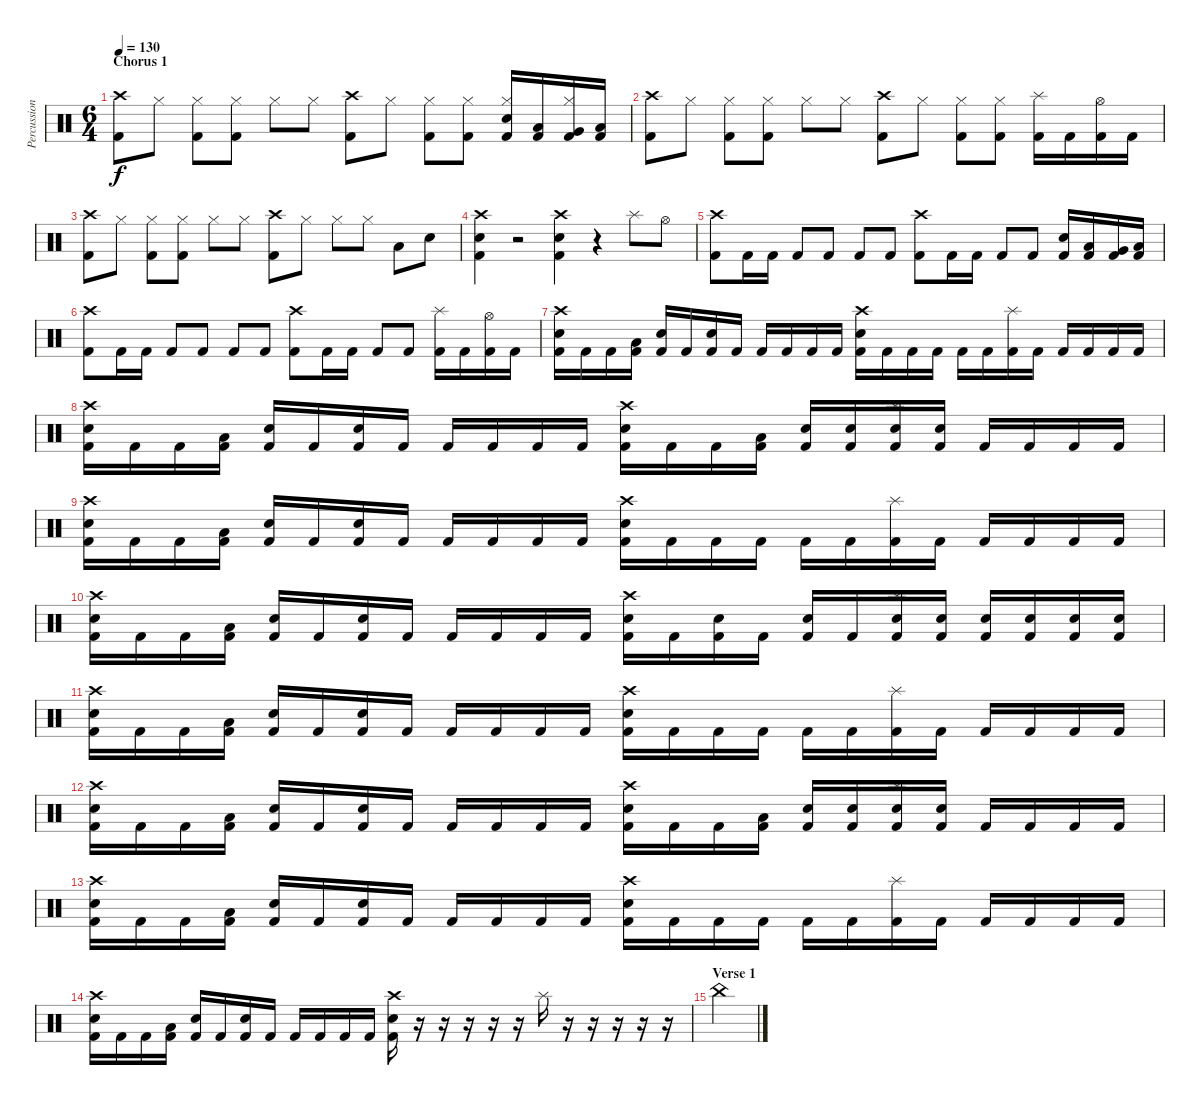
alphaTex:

\track ("Percussion" "Percussion") {instrument percussion}
\staff {score}
\articulation defaults
\ts (6 4)
\section ("" "Chorus 1")
\tempo 130
\clef neutral
\ks c
("Crash high (hit)" "Kick (hit) 2").8{dy f} "Hi-Hat (closed)".8 ("Hi-Hat (closed)" "Kick (hit) 2").8 ("Hi-Hat (closed)" "Kick (hit) 2").8 "Hi-Hat (closed)".8 "Hi-Hat (closed)".8 ("Crash high (hit)" "Kick (hit) 2").8 "Hi-Hat (closed)".8 ("Hi-Hat (closed)" "Kick (hit) 2").8 ("Hi-Hat (closed)" "Kick (hit) 2").8 ("Hi-Hat (closed)" "Electric Snare (hit)" "Kick (hit) 2").16 ("Low Tom (hit)" "Kick (hit) 2").16 ("Hi-Hat (closed)" "Very Low Tom (hit)" "Kick (hit) 2").16 ("Low Floor Tom (hit)" "Kick (hit) 2").16 |
("Crash high (hit)" "Kick (hit) 2").8 "Hi-Hat (closed)".8 ("Hi-Hat (closed)" "Kick (hit) 2").8 ("Hi-Hat (closed)" "Kick (hit) 2").8 "Hi-Hat (closed)".8 "Hi-Hat (closed)".8 ("Crash high (hit)" "Kick (hit) 2").8 "Hi-Hat (closed)".8 ("Hi-Hat (closed)" "Kick (hit) 2").8 ("Hi-Hat (closed)" "Kick (hit) 2").8 ("Splash (hit)" "Kick (hit) 2").16 "Kick (hit) 2".16 ("Hi-Hat (open)" "Kick (hit) 2").16 "Kick (hit) 2".16 |
("Crash high (hit)" "Kick (hit) 2").8 "Hi-Hat (closed)".8 ("Hi-Hat (closed)" "Kick (hit) 2").8 ("Hi-Hat (closed)" "Kick (hit) 2").8 "Hi-Hat (closed)".8 "Hi-Hat (closed)".8 ("Crash high (hit)" "Kick (hit) 2").8 "Hi-Hat (closed)".8 "Hi-Hat (closed)".8 "Hi-Hat (closed)".8 "Low Tom (hit)".8 "Snare (hit) 2".8 |
("Crash high (hit)" "Snare (hit) 2" "Kick (hit) 2").4 r.2 ("Crash high (hit)" "Snare (hit) 2" "Kick (hit) 2").4 r.4 "Splash (hit)".8 "Hi-Hat (open)".8 |
("Crash high (hit)" "Kick (hit) 2").8 "Kick (hit) 2".16 "Kick (hit) 2".16 "Kick (hit) 2".8 "Kick (hit) 2".8 "Kick (hit) 2".8 "Kick (hit) 2".8 ("Crash high (hit)" "Kick (hit) 2").8 "Kick (hit) 2".16 "Kick (hit) 2".16 "Kick (hit) 2".8 "Kick (hit) 2".8 ("Electric Snare (hit)" "Kick (hit) 2").16 ("Low Tom (hit)" "Kick (hit) 2").16 ("Very Low Tom (hit)" "Kick (hit) 2").16 ("Low Floor Tom (hit)" "Kick (hit) 2").16 |
("Crash high (hit)" "Kick (hit) 2").8 "Kick (hit) 2".16 "Kick (hit) 2".16 "Kick (hit) 2".8 "Kick (hit) 2".8 "Kick (hit) 2".8 "Kick (hit) 2".8 ("Crash high (hit)" "Kick (hit) 2").8 "Kick (hit) 2".16 "Kick (hit) 2".16 "Kick (hit) 2".8 "Kick (hit) 2".8 ("Splash (hit)" "Kick (hit) 2").16 "Kick (hit) 2".16 ("Hi-Hat (open)" "Kick (hit) 2").16 "Kick (hit) 2".16 |
("Crash high (hit)" "Snare (hit) 2" "Kick (hit) 2").16 "Kick (hit) 2".16 "Kick (hit) 2".16 ("Low Tom (hit)" "Kick (hit) 2").16 ("Snare (hit) 2" "Kick (hit) 2").16 "Kick (hit) 2".16 ("Snare (hit) 2" "Kick (hit) 2").16 "Kick (hit) 2".16 "Kick (hit) 2".16 "Kick (hit) 2".16 "Kick (hit) 2".16 "Kick (hit) 2".16 ("Crash high (hit)" "Snare (hit) 2" "Kick (hit) 2").16 "Kick (hit) 2".16 "Kick (hit) 2".16 "Kick (hit) 2".16 "Kick (hit) 2".16 "Kick (hit) 2".16 ("Splash (hit)" "Kick (hit) 2").16 "Kick (hit) 2".16 "Kick (hit) 2".16 "Kick (hit) 2".16 "Kick (hit) 2".16 "Kick (hit) 2".16 |
("Crash high (hit)" "Snare (hit) 2" "Kick (hit) 2").16 "Kick (hit) 2".16 "Kick (hit) 2".16 ("Low Tom (hit)" "Kick (hit) 2").16 ("Snare (hit) 2" "Kick (hit) 2").16 "Kick (hit) 2".16 ("Snare (hit) 2" "Kick (hit) 2").16 "Kick (hit) 2".16 "Kick (hit) 2".16 "Kick (hit) 2".16 "Kick (hit) 2".16 "Kick (hit) 2".16 ("Crash high (hit)" "Snare (hit) 2" "Kick (hit) 2").16 "Kick (hit) 2".16 "Kick (hit) 2".16 ("Low Tom (hit)" "Kick (hit) 2").16 ("Snare (hit) 2" "Kick (hit) 2").16 ("Electric Snare (hit)" "Kick (hit) 2").16 ("Splash (hit)" "Snare (hit) 2" "Kick (hit) 2").16 ("Electric Snare (hit)" "Kick (hit) 2").16 "Kick (hit) 2".16 "Kick (hit) 2".16 "Kick (hit) 2".16 "Kick (hit) 2".16 |
("Crash high (hit)" "Snare (hit) 2" "Kick (hit) 2").16 "Kick (hit) 2".16 "Kick (hit) 2".16 ("Low Tom (hit)" "Kick (hit) 2").16 ("Snare (hit) 2" "Kick (hit) 2").16 "Kick (hit) 2".16 ("Snare (hit) 2" "Kick (hit) 2").16 "Kick (hit) 2".16 "Kick (hit) 2".16 "Kick (hit) 2".16 "Kick (hit) 2".16 "Kick (hit) 2".16 ("Crash high (hit)" "Snare (hit) 2" "Kick (hit) 2").16 "Kick (hit) 2".16 "Kick (hit) 2".16 "Kick (hit) 2".16 "Kick (hit) 2".16 "Kick (hit) 2".16 ("Splash (hit)" "Kick (hit) 2").16 "Kick (hit) 2".16 "Kick (hit) 2".16 "Kick (hit) 2".16 "Kick (hit) 2".16 "Kick (hit) 2".16 |
("Crash high (hit)" "Snare (hit) 2" "Kick (hit) 2").16 "Kick (hit) 2".16 "Kick (hit) 2".16 ("Low Tom (hit)" "Kick (hit) 2").16 ("Snare (hit) 2" "Kick (hit) 2").16 "Kick (hit) 2".16 ("Snare (hit) 2" "Kick (hit) 2").16 "Kick (hit) 2".16 "Kick (hit) 2".16 "Kick (hit) 2".16 "Kick (hit) 2".16 "Kick (hit) 2".16 ("Crash high (hit)" "Snare (hit) 2" "Kick (hit) 2").16 "Kick (hit) 2".16 ("Snare (hit) 2" "Kick (hit) 2").16 "Kick (hit) 2".16 ("Snare (hit) 2" "Kick (hit) 2").16 "Kick (hit) 2".16 ("Splash (hit)" "Snare (hit) 2" "Kick (hit) 2").16 ("Electric Snare (hit)" "Kick (hit) 2").16 ("Snare (hit) 2" "Kick (hit) 2").16 ("Electric Snare (hit)" "Kick (hit) 2").16 ("Snare (hit) 2" "Kick (hit) 2").16 ("Electric Snare (hit)" "Kick (hit) 2").16 |
("Crash high (hit)" "Snare (hit) 2" "Kick (hit) 2").16 "Kick (hit) 2".16 "Kick (hit) 2".16 ("Low Tom (hit)" "Kick (hit) 2").16 ("Snare (hit) 2" "Kick (hit) 2").16 "Kick (hit) 2".16 ("Snare (hit) 2" "Kick (hit) 2").16 "Kick (hit) 2".16 "Kick (hit) 2".16 "Kick (hit) 2".16 "Kick (hit) 2".16 "Kick (hit) 2".16 ("Crash high (hit)" "Snare (hit) 2" "Kick (hit) 2").16 "Kick (hit) 2".16 "Kick (hit) 2".16 "Kick (hit) 2".16 "Kick (hit) 2".16 "Kick (hit) 2".16 ("Splash (hit)" "Kick (hit) 2").16 "Kick (hit) 2".16 "Kick (hit) 2".16 "Kick (hit) 2".16 "Kick (hit) 2".16 "Kick (hit) 2".16 |
("Crash high (hit)" "Snare (hit) 2" "Kick (hit) 2").16 "Kick (hit) 2".16 "Kick (hit) 2".16 ("Low Tom (hit)" "Kick (hit) 2").16 ("Snare (hit) 2" "Kick (hit) 2").16 "Kick (hit) 2".16 ("Snare (hit) 2" "Kick (hit) 2").16 "Kick (hit) 2".16 "Kick (hit) 2".16 "Kick (hit) 2".16 "Kick (hit) 2".16 "Kick (hit) 2".16 ("Crash high (hit)" "Snare (hit) 2" "Kick (hit) 2").16 "Kick (hit) 2".16 "Kick (hit) 2".16 ("Low Tom (hit)" "Kick (hit) 2").16 ("Snare (hit) 2" "Kick (hit) 2").16 ("Electric Snare (hit)" "Kick (hit) 2").16 ("Splash (hit)" "Snare (hit) 2" "Kick (hit) 2").16 ("Electric Snare (hit)" "Kick (hit) 2").16 "Kick (hit) 2".16 "Kick (hit) 2".16 "Kick (hit) 2".16 "Kick (hit) 2".16 |
("Crash high (hit)" "Snare (hit) 2" "Kick (hit) 2").16 "Kick (hit) 2".16 "Kick (hit) 2".16 ("Low Tom (hit)" "Kick (hit) 2").16 ("Snare (hit) 2" "Kick (hit) 2").16 "Kick (hit) 2".16 ("Snare (hit) 2" "Kick (hit) 2").16 "Kick (hit) 2".16 "Kick (hit) 2".16 "Kick (hit) 2".16 "Kick (hit) 2".16 "Kick (hit) 2".16 ("Crash high (hit)" "Snare (hit) 2" "Kick (hit) 2").16 "Kick (hit) 2".16 "Kick (hit) 2".16 "Kick (hit) 2".16 "Kick (hit) 2".16 "Kick (hit) 2".16 ("Splash (hit)" "Kick (hit) 2").16 "Kick (hit) 2".16 "Kick (hit) 2".16 "Kick (hit) 2".16 "Kick (hit) 2".16 "Kick (hit) 2".16 |
("Crash high (hit)" "Snare (hit) 2" "Kick (hit) 2").16 "Kick (hit) 2".16 "Kick (hit) 2".16 ("Low Tom (hit)" "Kick (hit) 2").16 ("Snare (hit) 2" "Kick (hit) 2").16 "Kick (hit) 2".16 ("Snare (hit) 2" "Kick (hit) 2").16 "Kick (hit) 2".16 "Kick (hit) 2".16 "Kick (hit) 2".16 "Kick (hit) 2".16 "Kick (hit) 2".16 ("Crash high (hit)" "Snare (hit) 2" "Kick (hit) 2").16 r.16 r.16 r.16 r.16 r.16 "Splash (hit)".16 r.16 r.16 r.16 r.16 r.16 |
\section ("" "Verse 1")
"China (hit)".4
